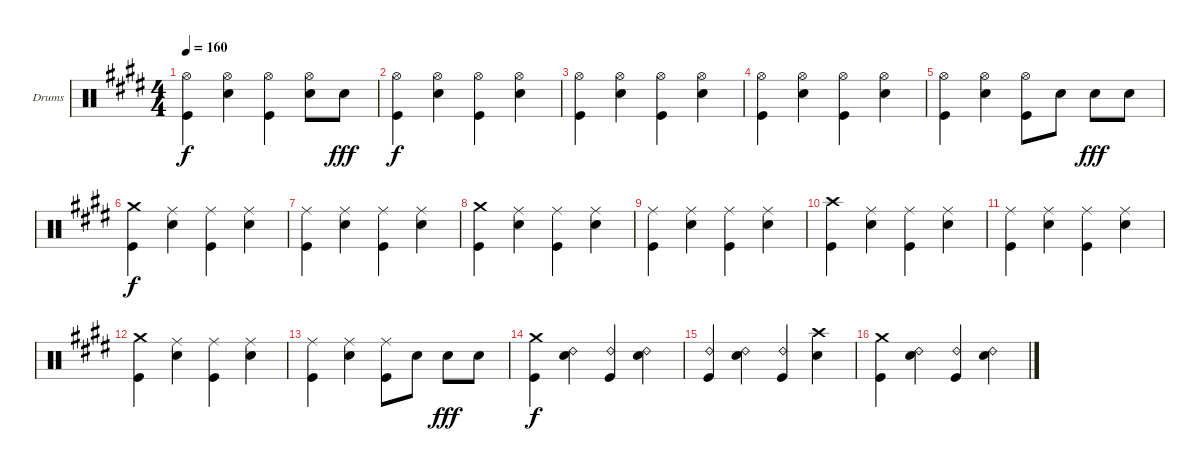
\bracketExtendMode groupsimilarinstruments
\firstSystemTrackNameOrientation horizontal
\otherSystemsTrackNameOrientation horizontal
\track ("Drumkit" "Drums") {instrument percussion}
\staff {score}
\articulation defaults
\ts (4 4)
\tempo 160
\clef neutral
\ks e
("Hi-Hat (open)" "Kick (hit)").4{dy f} ("Hi-Hat (open)" "Snare (hit) 2").4 ("Hi-Hat (open)" "Kick (hit)").4 ("Hi-Hat (open)" "Snare (hit) 2").8 "Snare (hit) 2".8{dy fff} |
("Hi-Hat (open)" "Kick (hit)").4{dy f} ("Hi-Hat (open)" "Snare (hit) 2").4 ("Hi-Hat (open)" "Kick (hit)").4 ("Hi-Hat (open)" "Snare (hit) 2").4 |
("Hi-Hat (open)" "Kick (hit)").4 ("Hi-Hat (open)" "Snare (hit) 2").4 ("Hi-Hat (open)" "Kick (hit)").4 ("Hi-Hat (open)" "Snare (hit) 2").4 |
("Hi-Hat (open)" "Kick (hit)").4 ("Hi-Hat (open)" "Snare (hit) 2").4 ("Hi-Hat (open)" "Kick (hit)").4 ("Hi-Hat (open)" "Snare (hit) 2").4 |
("Hi-Hat (open)" "Kick (hit)").4 ("Hi-Hat (open)" "Snare (hit) 2").4 ("Hi-Hat (open)" "Kick (hit)").8 "Snare (hit) 2".8 "Snare (hit) 2".8{dy fff} "Snare (hit) 2".8 |
("Crash medium (hit)" "Kick (hit)").4{dy f} ("Ride (middle)" "Snare (hit) 2").4 ("Ride (middle)" "Kick (hit)").4 ("Ride (middle)" "Snare (hit) 2").4 |
("Ride (middle)" "Kick (hit)").4 ("Ride (middle)" "Snare (hit) 2").4 ("Ride (middle)" "Kick (hit)").4 ("Ride (middle)" "Snare (hit) 2").4 |
("Crash medium (hit)" "Kick (hit)").4 ("Ride (middle)" "Snare (hit) 2").4 ("Ride (middle)" "Kick (hit)").4 ("Ride (middle)" "Snare (hit) 2").4 |
("Ride (middle)" "Kick (hit)").4 ("Ride (middle)" "Snare (hit) 2").4 ("Ride (middle)" "Kick (hit)").4 ("Ride (middle)" "Snare (hit) 2").4 |
("Crash high (hit)" "Kick (hit)").4 ("Ride (middle)" "Snare (hit) 2").4 ("Ride (middle)" "Kick (hit)").4 ("Ride (middle)" "Snare (hit) 2").4 |
("Ride (middle)" "Kick (hit)").4 ("Ride (middle)" "Snare (hit) 2").4 ("Ride (middle)" "Kick (hit)").4 ("Ride (middle)" "Snare (hit) 2").4 |
("Crash medium (hit)" "Kick (hit)").4 ("Ride (middle)" "Snare (hit) 2").4 ("Ride (middle)" "Kick (hit)").4 ("Ride (middle)" "Snare (hit) 2").4 |
("Ride (middle)" "Kick (hit)").4 ("Ride (middle)" "Snare (hit) 2").4 ("Ride (middle)" "Kick (hit)").8 "Snare (hit) 2".8 "Snare (hit) 2".8{dy fff} "Snare (hit) 2".8 |
("Crash medium (hit)" "Kick (hit)").4{dy f} ("Ride (bell) 2" "Snare (hit) 2").4 ("Ride (bell) 2" "Kick (hit)").4 ("Ride (bell) 2" "Snare (hit) 2").4 |
("Ride (bell) 2" "Kick (hit)").4 ("Ride (bell) 2" "Snare (hit) 2").4 ("Ride (bell) 2" "Kick (hit)").4 ("Crash high (hit)" "Snare (hit) 2").4 |
("Crash medium (hit)" "Kick (hit)").4 ("Ride (bell) 2" "Snare (hit) 2").4 ("Ride (bell) 2" "Kick (hit)").4 ("Ride (bell) 2" "Snare (hit) 2").4
